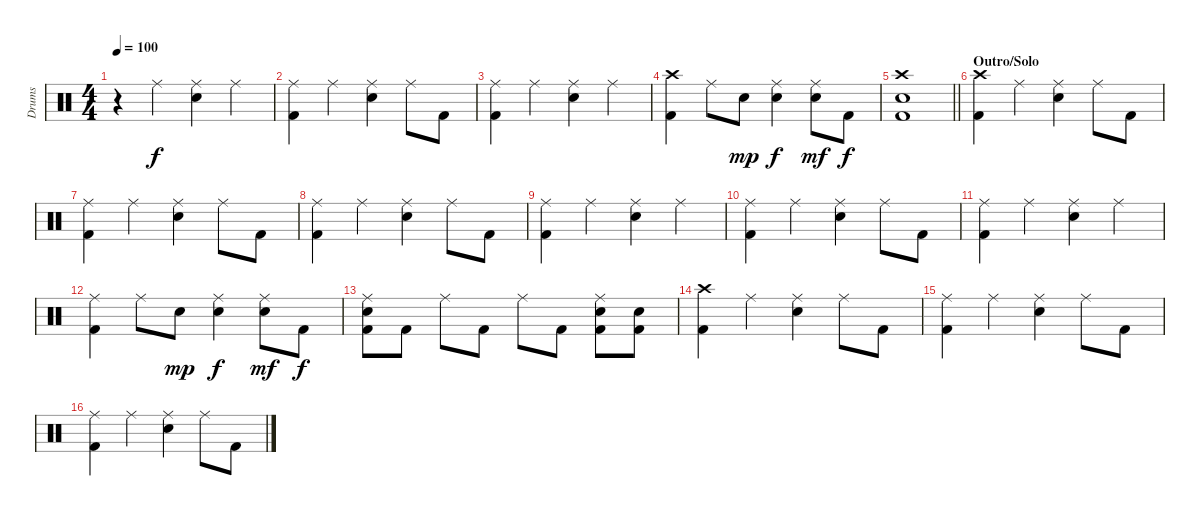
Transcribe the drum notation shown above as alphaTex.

\track ("Drums" "Drums") {instrument percussion}
\staff {score}
\articulation defaults
\ts (4 4)
\tempo 100
\clef neutral
\ks c
r.4{dy f} "Ride (middle)".4 ("Ride (middle)" "Electric Snare (hit)").4 "Ride (middle)".4 |
("Ride (middle)" "Kick (hit) 2").4 "Ride (middle)".4 ("Ride (middle)" "Electric Snare (hit)").4 "Ride (middle)".8 "Kick (hit) 2".8 |
("Ride (middle)" "Kick (hit) 2").4 "Ride (middle)".4 ("Ride (middle)" "Electric Snare (hit)").4 "Ride (middle)".4 |
("Crash high (hit)" "Kick (hit) 2").4 "Ride (middle)".8 "Electric Snare (hit)".8{dy mp} ("Ride (middle)" "Electric Snare (hit)").4{dy f} ("Ride (middle)" "Electric Snare (hit)").8{dy mf} "Kick (hit) 2".8{dy f} |
\barLineRight lightlight
("Crash high (hit)" "Electric Snare (hit)" "Kick (hit) 2").1 |
\section ("" "Outro/Solo")
("Crash high (hit)" "Kick (hit) 2").4 "Ride (middle)".4 ("Ride (middle)" "Electric Snare (hit)").4 "Ride (middle)".8 "Kick (hit) 2".8 |
("Ride (middle)" "Kick (hit) 2").4 "Ride (middle)".4 ("Ride (middle)" "Electric Snare (hit)").4 "Ride (middle)".8 "Kick (hit) 2".8 |
("Ride (middle)" "Kick (hit) 2").4 "Ride (middle)".4 ("Ride (middle)" "Electric Snare (hit)").4 "Ride (middle)".8 "Kick (hit) 2".8 |
("Ride (middle)" "Kick (hit) 2").4 "Ride (middle)".4 ("Ride (middle)" "Electric Snare (hit)").4 "Ride (middle)".4 |
("Ride (middle)" "Kick (hit) 2").4 "Ride (middle)".4 ("Ride (middle)" "Electric Snare (hit)").4 "Ride (middle)".8 "Kick (hit) 2".8 |
("Ride (middle)" "Kick (hit) 2").4 "Ride (middle)".4 ("Ride (middle)" "Electric Snare (hit)").4 "Ride (middle)".4 |
("Ride (middle)" "Kick (hit) 2").4 "Ride (middle)".8 "Electric Snare (hit)".8{dy mp} ("Ride (middle)" "Electric Snare (hit)").4{dy f} ("Ride (middle)" "Electric Snare (hit)").8{dy mf} "Kick (hit) 2".8{dy f} |
("Ride (middle)" "Electric Snare (hit)" "Kick (hit) 2").8 "Kick (hit) 2".8 "Ride (middle)".8 "Kick (hit) 2".8 "Ride (middle)".8 "Kick (hit) 2".8 ("Ride (middle)" "Electric Snare (hit)" "Kick (hit) 2").8 ("Electric Snare (hit)" "Kick (hit) 2").8 |
("Crash high (hit)" "Kick (hit) 2").4 "Ride (middle)".4 ("Ride (middle)" "Electric Snare (hit)").4 "Ride (middle)".8 "Kick (hit) 2".8 |
("Ride (middle)" "Kick (hit) 2").4 "Ride (middle)".4 ("Ride (middle)" "Electric Snare (hit)").4 "Ride (middle)".8 "Kick (hit) 2".8 |
("Ride (middle)" "Kick (hit) 2").4 "Ride (middle)".4 ("Ride (middle)" "Electric Snare (hit)").4 "Ride (middle)".8 "Kick (hit) 2".8
